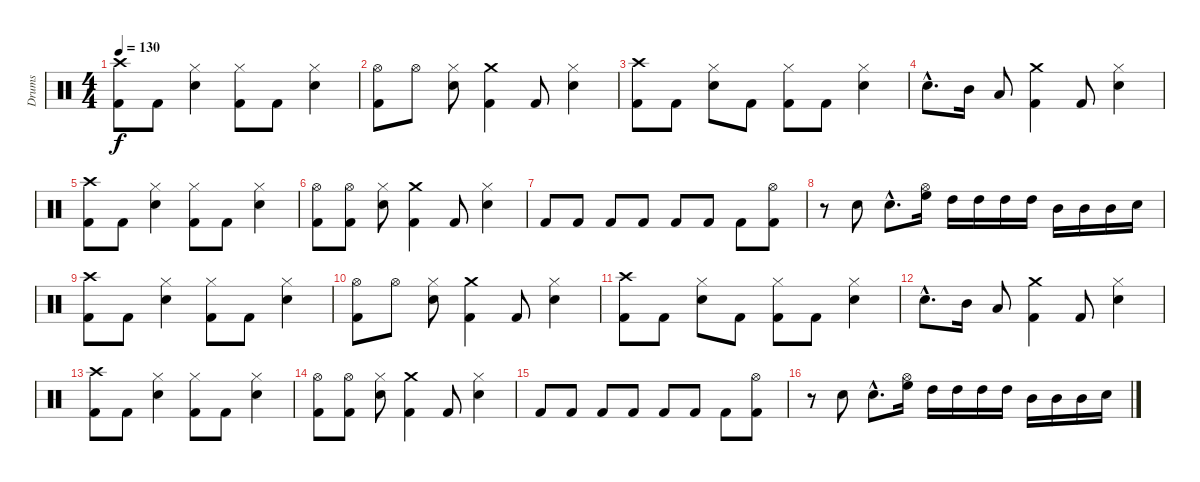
\track ("Drums" "Drums") {instrument percussion}
\staff {score}
\articulation defaults
\ts (4 4)
\tempo 130
\clef neutral
\ks c
("Kick (hit) 2" "Crash high (hit)").8{dy f} "Kick (hit) 2".8 ("Snare (hit) 2" "Hi-Hat (closed)").4 ("Kick (hit) 2" "Hi-Hat (closed)").8 "Kick (hit) 2".8 ("Snare (hit) 2" "Hi-Hat (closed)").4 |
("Kick (hit) 2" "Hi-Hat (open)").8 "Hi-Hat (open)".8 ("Snare (hit) 2" "Hi-Hat (closed)").8 ("Kick (hit) 2" "Crash medium (hit)").4 "Kick (hit) 2".8 ("Snare (hit) 2" "Hi-Hat (closed)").4 |
("Kick (hit) 2" "Crash high (hit)").8 "Kick (hit) 2".8 ("Snare (hit) 2" "Hi-Hat (closed)").8 "Kick (hit) 2".8 ("Kick (hit) 2" "Hi-Hat (closed)").8 "Kick (hit) 2".8 ("Snare (hit) 2" "Hi-Hat (closed)").4 |
"Snare (hit) 2"{hac}.8{d} "Mid Tom (hit)".16 "Low Tom (hit)".8 ("Kick (hit) 2" "Crash medium (hit)").4 "Kick (hit) 2".8 ("Snare (hit) 2" "Hi-Hat (closed)").4 |
("Kick (hit) 2" "Crash high (hit)").8 "Kick (hit) 2".8 ("Snare (hit) 2" "Hi-Hat (closed)").4 ("Kick (hit) 2" "Hi-Hat (closed)").8 "Kick (hit) 2".8 ("Snare (hit) 2" "Hi-Hat (closed)").4 |
("Kick (hit) 2" "Hi-Hat (open)").8 ("Kick (hit) 2" "Hi-Hat (open)").8 ("Snare (hit) 2" "Hi-Hat (closed)").8 ("Kick (hit) 2" "Crash medium (hit)").4 "Kick (hit) 2".8 ("Snare (hit) 2" "Hi-Hat (closed)").4 |
"Kick (hit) 2".8 "Kick (hit) 2".8 "Kick (hit) 2".8 "Kick (hit) 2".8 "Kick (hit) 2".8 "Kick (hit) 2".8 "Kick (hit) 2".8 ("Kick (hit) 2" "Hi-Hat (open)").8 |
r.8 "Snare (hit) 2".8 "Snare (hit) 2"{hac}.8{d} ("Hi-Hat (open)" "High Floor Tom (hit)").16 "High Tom (hit)".16 "High Tom (hit)".16 "High Tom (hit)".16 "High Tom (hit)".16 "Mid Tom (hit)".16 "Mid Tom (hit)".16 "Mid Tom (hit)".16 "Snare (hit) 2".16 |
("Kick (hit) 2" "Crash high (hit)").8 "Kick (hit) 2".8 ("Snare (hit) 2" "Hi-Hat (closed)").4 ("Kick (hit) 2" "Hi-Hat (closed)").8 "Kick (hit) 2".8 ("Snare (hit) 2" "Hi-Hat (closed)").4 |
("Kick (hit) 2" "Hi-Hat (open)").8 "Hi-Hat (open)".8 ("Snare (hit) 2" "Hi-Hat (closed)").8 ("Kick (hit) 2" "Crash medium (hit)").4 "Kick (hit) 2".8 ("Snare (hit) 2" "Hi-Hat (closed)").4 |
("Kick (hit) 2" "Crash high (hit)").8 "Kick (hit) 2".8 ("Snare (hit) 2" "Hi-Hat (closed)").8 "Kick (hit) 2".8 ("Kick (hit) 2" "Hi-Hat (closed)").8 "Kick (hit) 2".8 ("Snare (hit) 2" "Hi-Hat (closed)").4 |
"Snare (hit) 2"{hac}.8{d} "Mid Tom (hit)".16 "Low Tom (hit)".8 ("Kick (hit) 2" "Crash medium (hit)").4 "Kick (hit) 2".8 ("Snare (hit) 2" "Hi-Hat (closed)").4 |
("Kick (hit) 2" "Crash high (hit)").8 "Kick (hit) 2".8 ("Snare (hit) 2" "Hi-Hat (closed)").4 ("Kick (hit) 2" "Hi-Hat (closed)").8 "Kick (hit) 2".8 ("Snare (hit) 2" "Hi-Hat (closed)").4 |
("Kick (hit) 2" "Hi-Hat (open)").8 ("Kick (hit) 2" "Hi-Hat (open)").8 ("Snare (hit) 2" "Hi-Hat (closed)").8 ("Kick (hit) 2" "Crash medium (hit)").4 "Kick (hit) 2".8 ("Snare (hit) 2" "Hi-Hat (closed)").4 |
"Kick (hit) 2".8 "Kick (hit) 2".8 "Kick (hit) 2".8 "Kick (hit) 2".8 "Kick (hit) 2".8 "Kick (hit) 2".8 "Kick (hit) 2".8 ("Kick (hit) 2" "Hi-Hat (open)").8 |
r.8 "Snare (hit) 2".8 "Snare (hit) 2"{hac}.8{d} ("Hi-Hat (open)" "High Floor Tom (hit)").16 "High Tom (hit)".16 "High Tom (hit)".16 "High Tom (hit)".16 "High Tom (hit)".16 "Mid Tom (hit)".16 "Mid Tom (hit)".16 "Mid Tom (hit)".16 "Snare (hit) 2".16
